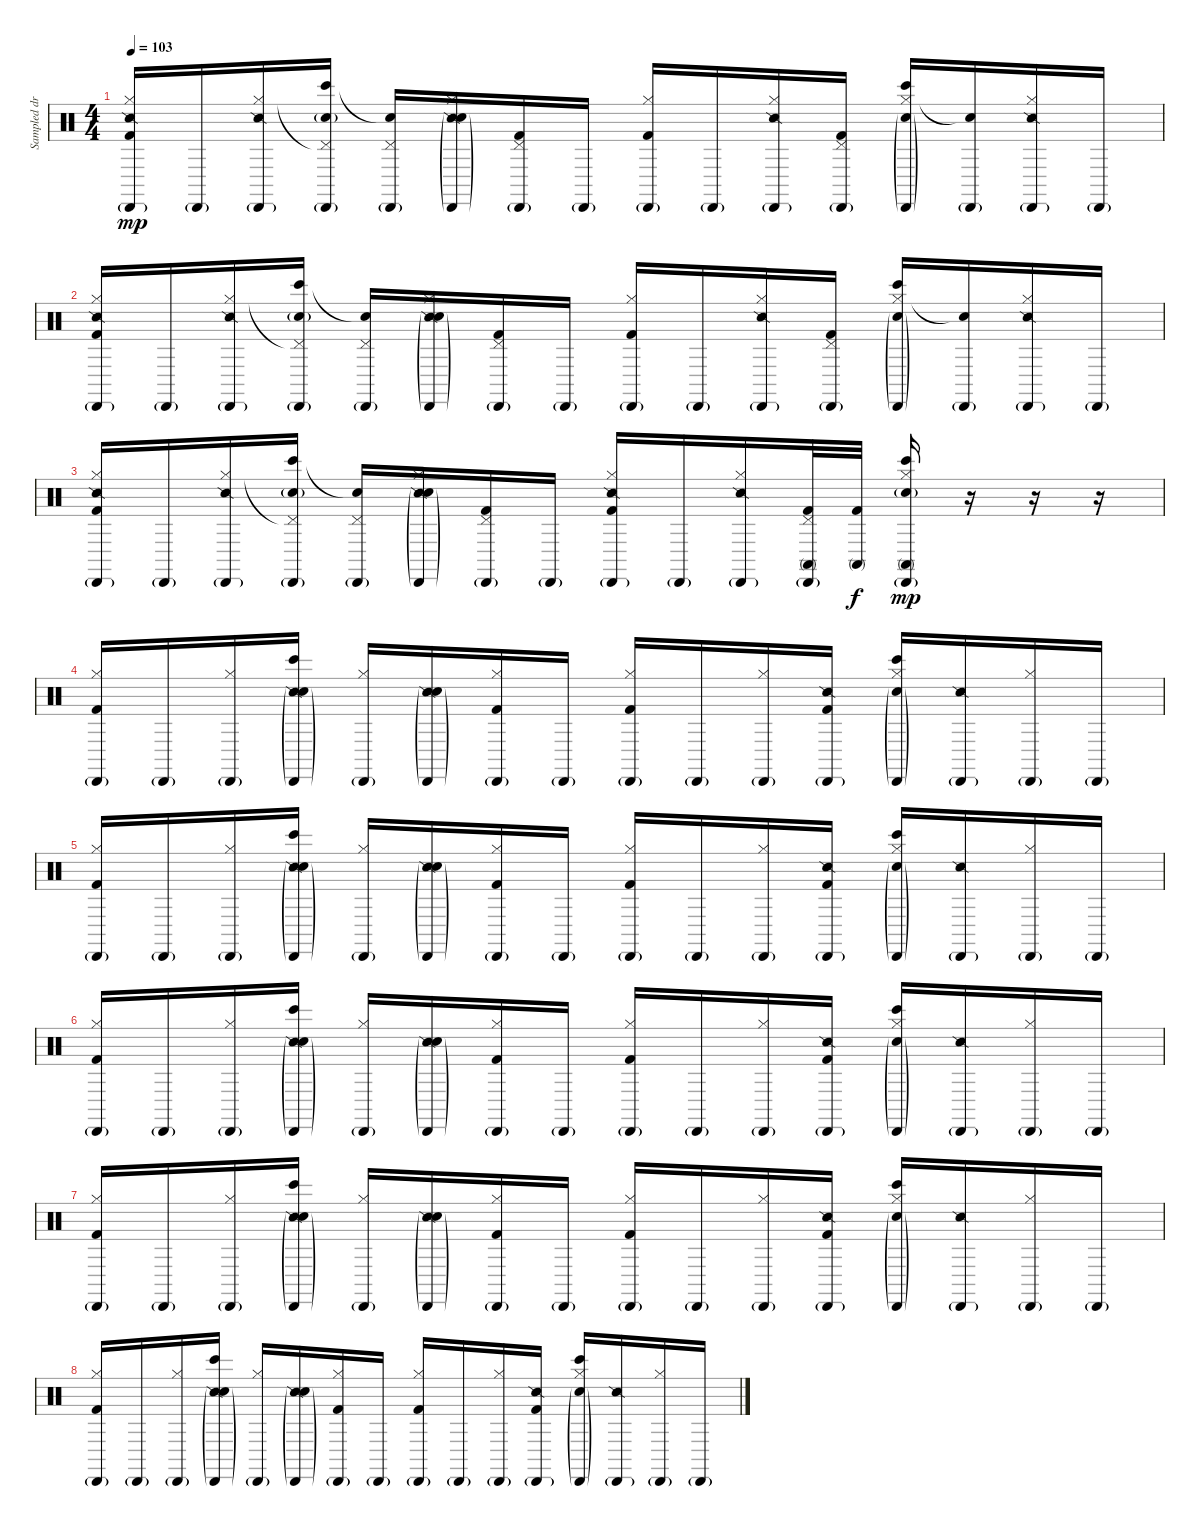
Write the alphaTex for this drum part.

\track ("Sampled drums (Rob with Joe)" "Sampled dr") {instrument percussion}
\staff {score}
\articulation defaults
\ts (4 4)
\tempo 103
\clef neutral
\ks c
("Cabasa (hit)"{g} "Hi-Hat (closed)" "Snare (side stick) 2" "Kick (hit) 2").16{dy mp} "Cabasa (hit)"{g}.16 ("Cabasa (hit)"{g} "Hi-Hat (closed)" "Snare (side stick) 2").16 ("Cabasa (hit)"{g} "Pedal Hi-Hat (hit)"{t} "Bongo High (hit)" "Snare (hit) 2"{g}).16 ("Cabasa (hit)"{g} "Pedal Hi-Hat (hit)" "Snare (hit)"{t}).16 ("Cabasa (hit)"{g} "Hi-Hat (closed)" "Snare (side stick) 2" "Snare (hit) 2"{g}).16 ("Cabasa (hit)"{g} "Pedal Hi-Hat (hit)" "Kick (hit) 2").16 "Cabasa (hit)"{g}.16 ("Cabasa (hit)"{g} "Hi-Hat (closed)" "Kick (hit) 2").16 "Cabasa (hit)"{g}.16 ("Cabasa (hit)"{g} "Hi-Hat (closed)" "Snare (side stick) 2").16 ("Cabasa (hit)"{g} "Pedal Hi-Hat (hit)" "Kick (hit) 2").16 ("Cabasa (hit)"{g} "Hi-Hat (closed)" "Bongo High (hit)" "Snare (hit) 2"{g}).16 ("Cabasa (hit)"{g} "Snare (hit)"{t}).16 ("Cabasa (hit)"{g} "Hi-Hat (closed)" "Snare (side stick) 2").16 "Cabasa (hit)"{g}.16 |
("Cabasa (hit)"{g} "Hi-Hat (closed)" "Snare (side stick) 2" "Kick (hit) 2").16 "Cabasa (hit)"{g}.16 ("Cabasa (hit)"{g} "Hi-Hat (closed)" "Snare (side stick) 2").16 ("Cabasa (hit)"{g} "Pedal Hi-Hat (hit)"{t} "Bongo High (hit)" "Snare (hit) 2"{g}).16 ("Cabasa (hit)"{g} "Pedal Hi-Hat (hit)" "Snare (hit)"{t}).16 ("Cabasa (hit)"{g} "Hi-Hat (closed)" "Snare (side stick) 2" "Snare (hit) 2"{g}).16 ("Cabasa (hit)"{g} "Pedal Hi-Hat (hit)" "Kick (hit) 2").16 "Cabasa (hit)"{g}.16 ("Cabasa (hit)"{g} "Hi-Hat (closed)" "Kick (hit) 2").16 "Cabasa (hit)"{g}.16 ("Cabasa (hit)"{g} "Hi-Hat (closed)" "Snare (side stick) 2").16 ("Cabasa (hit)"{g} "Pedal Hi-Hat (hit)" "Kick (hit) 2").16 ("Cabasa (hit)"{g} "Hi-Hat (closed)" "Bongo High (hit)" "Snare (hit) 2"{g}).16 ("Cabasa (hit)"{g} "Snare (hit)"{t}).16 ("Cabasa (hit)"{g} "Hi-Hat (closed)" "Snare (side stick) 2").16 "Cabasa (hit)"{g}.16 |
("Cabasa (hit)"{g} "Hi-Hat (closed)" "Snare (side stick) 2" "Kick (hit) 2").16 "Cabasa (hit)"{g}.16 ("Cabasa (hit)"{g} "Hi-Hat (closed)" "Snare (side stick) 2").16 ("Cabasa (hit)"{g} "Pedal Hi-Hat (hit)"{t} "Bongo High (hit)" "Snare (hit) 2"{g}).16 ("Cabasa (hit)"{g} "Pedal Hi-Hat (hit)" "Snare (hit)"{t}).16 ("Cabasa (hit)"{g} "Hi-Hat (closed)" "Snare (side stick) 2" "Snare (hit) 2"{g}).16 ("Cabasa (hit)"{g} "Pedal Hi-Hat (hit)" "Kick (hit) 2").16 "Cabasa (hit)"{g}.16 ("Cabasa (hit)"{g} "Hi-Hat (closed)" "Snare (side stick) 2" "Kick (hit) 2").16 "Cabasa (hit)"{g}.16 ("Cabasa (hit)"{g} "Hi-Hat (closed)" "Snare (side stick) 2").16 ("Cabasa (hit)"{g} "Pedal Hi-Hat (hit)" "Conga high (mute)" "Kick (hit) 2").32 ("Conga high (mute)" "Kick (hit) 2").32{dy f} ("Cabasa (hit)"{g} "Hi-Hat (closed)" "Conga high (mute)" "Bongo High (hit)" "Snare (hit) 2"{g}).16{dy mp} r.16 r.16 r.16 |
("Cabasa (hit)"{g} "Hi-Hat (closed)" "Kick (hit) 2").16 "Cabasa (hit)"{g}.16 ("Cabasa (hit)"{g} "Hi-Hat (closed)").16 ("Cabasa (hit)"{g} "Snare (side stick) 2" "Bongo High (hit)" "Snare (hit) 2"{g}).16 ("Cabasa (hit)"{g} "Hi-Hat (closed)").16 ("Cabasa (hit)"{g} "Snare (side stick) 2" "Snare (hit) 2"{g}).16 ("Cabasa (hit)"{g} "Hi-Hat (closed)" "Kick (hit) 2").16 "Cabasa (hit)"{g}.16 ("Cabasa (hit)"{g} "Hi-Hat (closed)" "Kick (hit) 2").16 "Cabasa (hit)"{g}.16 ("Cabasa (hit)"{g} "Hi-Hat (closed)").16 ("Cabasa (hit)"{g} "Snare (side stick) 2" "Kick (hit) 2").16 ("Cabasa (hit)"{g} "Hi-Hat (closed)" "Bongo High (hit)" "Snare (hit) 2"{g}).16 ("Cabasa (hit)"{g} "Snare (side stick) 2").16 ("Cabasa (hit)"{g} "Hi-Hat (closed)").16 "Cabasa (hit)"{g}.16 |
("Cabasa (hit)"{g} "Hi-Hat (closed)" "Kick (hit) 2").16 "Cabasa (hit)"{g}.16 ("Cabasa (hit)"{g} "Hi-Hat (closed)").16 ("Cabasa (hit)"{g} "Snare (side stick) 2" "Bongo High (hit)" "Snare (hit) 2"{g}).16 ("Cabasa (hit)"{g} "Hi-Hat (closed)").16 ("Cabasa (hit)"{g} "Snare (side stick) 2" "Snare (hit) 2"{g}).16 ("Cabasa (hit)"{g} "Hi-Hat (closed)" "Kick (hit) 2").16 "Cabasa (hit)"{g}.16 ("Cabasa (hit)"{g} "Hi-Hat (closed)" "Kick (hit) 2").16 "Cabasa (hit)"{g}.16 ("Cabasa (hit)"{g} "Hi-Hat (closed)").16 ("Cabasa (hit)"{g} "Snare (side stick) 2" "Kick (hit) 2").16 ("Cabasa (hit)"{g} "Hi-Hat (closed)" "Bongo High (hit)" "Snare (hit) 2"{g}).16 ("Cabasa (hit)"{g} "Snare (side stick) 2").16 ("Cabasa (hit)"{g} "Hi-Hat (closed)").16 "Cabasa (hit)"{g}.16 |
("Cabasa (hit)"{g} "Hi-Hat (closed)" "Kick (hit) 2").16 "Cabasa (hit)"{g}.16 ("Cabasa (hit)"{g} "Hi-Hat (closed)").16 ("Cabasa (hit)"{g} "Snare (side stick) 2" "Bongo High (hit)" "Snare (hit) 2"{g}).16 ("Cabasa (hit)"{g} "Hi-Hat (closed)").16 ("Cabasa (hit)"{g} "Snare (side stick) 2" "Snare (hit) 2"{g}).16 ("Cabasa (hit)"{g} "Hi-Hat (closed)" "Kick (hit) 2").16 "Cabasa (hit)"{g}.16 ("Cabasa (hit)"{g} "Hi-Hat (closed)" "Kick (hit) 2").16 "Cabasa (hit)"{g}.16 ("Cabasa (hit)"{g} "Hi-Hat (closed)").16 ("Cabasa (hit)"{g} "Snare (side stick) 2" "Kick (hit) 2").16 ("Cabasa (hit)"{g} "Hi-Hat (closed)" "Bongo High (hit)" "Snare (hit) 2"{g}).16 ("Cabasa (hit)"{g} "Snare (side stick) 2").16 ("Cabasa (hit)"{g} "Hi-Hat (closed)").16 "Cabasa (hit)"{g}.16 |
("Cabasa (hit)"{g} "Hi-Hat (closed)" "Kick (hit) 2").16 "Cabasa (hit)"{g}.16 ("Cabasa (hit)"{g} "Hi-Hat (closed)").16 ("Cabasa (hit)"{g} "Snare (side stick) 2" "Bongo High (hit)" "Snare (hit) 2"{g}).16 ("Cabasa (hit)"{g} "Hi-Hat (closed)").16 ("Cabasa (hit)"{g} "Snare (side stick) 2" "Snare (hit) 2"{g}).16 ("Cabasa (hit)"{g} "Hi-Hat (closed)" "Kick (hit) 2").16 "Cabasa (hit)"{g}.16 ("Cabasa (hit)"{g} "Hi-Hat (closed)" "Kick (hit) 2").16 "Cabasa (hit)"{g}.16 ("Cabasa (hit)"{g} "Hi-Hat (closed)").16 ("Cabasa (hit)"{g} "Snare (side stick) 2" "Kick (hit) 2").16 ("Cabasa (hit)"{g} "Hi-Hat (closed)" "Bongo High (hit)" "Snare (hit) 2"{g}).16 ("Cabasa (hit)"{g} "Snare (side stick) 2").16 ("Cabasa (hit)"{g} "Hi-Hat (closed)").16 "Cabasa (hit)"{g}.16 |
("Cabasa (hit)"{g} "Hi-Hat (closed)" "Kick (hit) 2").16 "Cabasa (hit)"{g}.16 ("Cabasa (hit)"{g} "Hi-Hat (closed)").16 ("Cabasa (hit)"{g} "Snare (side stick) 2" "Bongo High (hit)" "Snare (hit) 2"{g}).16 ("Cabasa (hit)"{g} "Hi-Hat (closed)").16 ("Cabasa (hit)"{g} "Snare (side stick) 2" "Snare (hit) 2"{g}).16 ("Cabasa (hit)"{g} "Hi-Hat (closed)" "Kick (hit) 2").16 "Cabasa (hit)"{g}.16 ("Cabasa (hit)"{g} "Hi-Hat (closed)" "Kick (hit) 2").16 "Cabasa (hit)"{g}.16 ("Cabasa (hit)"{g} "Hi-Hat (closed)").16 ("Cabasa (hit)"{g} "Snare (side stick) 2" "Kick (hit) 2").16 ("Cabasa (hit)"{g} "Hi-Hat (closed)" "Bongo High (hit)" "Snare (hit) 2"{g}).16 ("Cabasa (hit)"{g} "Snare (side stick) 2").16 ("Cabasa (hit)"{g} "Hi-Hat (closed)").16 "Cabasa (hit)"{g}.16
